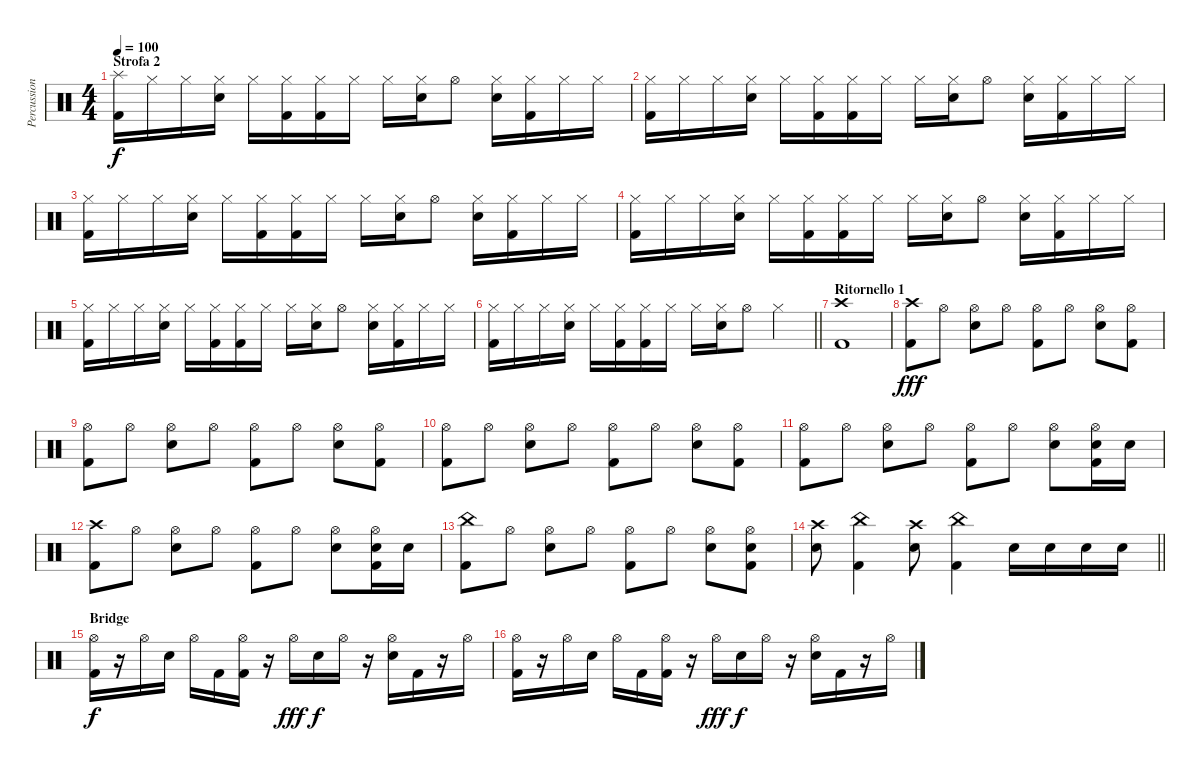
\track ("Percussioni" "Percussion") {instrument percussion}
\staff {score}
\articulation defaults
\ts (4 4)
\section ("" "Strofa 2")
\tempo 100
\clef neutral
\ks c
("Splash (hit)" "Kick (hit) 2").16{dy f} "Hi-Hat (closed)".16 "Hi-Hat (closed)".16 ("Hi-Hat (closed)" "Snare (hit) 2").16 "Hi-Hat (closed)".16 ("Hi-Hat (closed)" "Kick (hit) 2").16 ("Hi-Hat (closed)" "Kick (hit) 2").16 "Hi-Hat (closed)".16 "Hi-Hat (closed)".16 ("Hi-Hat (closed)" "Snare (hit) 2").16 "Hi-Hat (open)".8 ("Hi-Hat (closed)" "Snare (hit) 2").16 ("Hi-Hat (closed)" "Kick (hit) 2").16 "Hi-Hat (closed)".16 "Hi-Hat (closed)".16 |
("Hi-Hat (closed)" "Kick (hit) 2").16 "Hi-Hat (closed)".16 "Hi-Hat (closed)".16 ("Hi-Hat (closed)" "Snare (hit) 2").16 "Hi-Hat (closed)".16 ("Hi-Hat (closed)" "Kick (hit) 2").16 ("Hi-Hat (closed)" "Kick (hit) 2").16 "Hi-Hat (closed)".16 "Hi-Hat (closed)".16 ("Hi-Hat (closed)" "Snare (hit) 2").16 "Hi-Hat (open)".8 ("Hi-Hat (closed)" "Snare (hit) 2").16 ("Hi-Hat (closed)" "Kick (hit) 2").16 "Hi-Hat (closed)".16 "Hi-Hat (closed)".16 |
("Hi-Hat (closed)" "Kick (hit) 2").16 "Hi-Hat (closed)".16 "Hi-Hat (closed)".16 ("Hi-Hat (closed)" "Snare (hit) 2").16 "Hi-Hat (closed)".16 ("Hi-Hat (closed)" "Kick (hit) 2").16 ("Hi-Hat (closed)" "Kick (hit) 2").16 "Hi-Hat (closed)".16 "Hi-Hat (closed)".16 ("Hi-Hat (closed)" "Snare (hit) 2").16 "Hi-Hat (open)".8 ("Hi-Hat (closed)" "Snare (hit) 2").16 ("Hi-Hat (closed)" "Kick (hit) 2").16 "Hi-Hat (closed)".16 "Hi-Hat (closed)".16 |
("Hi-Hat (closed)" "Kick (hit) 2").16 "Hi-Hat (closed)".16 "Hi-Hat (closed)".16 ("Hi-Hat (closed)" "Snare (hit) 2").16 "Hi-Hat (closed)".16 ("Hi-Hat (closed)" "Kick (hit) 2").16 ("Hi-Hat (closed)" "Kick (hit) 2").16 "Hi-Hat (closed)".16 "Hi-Hat (closed)".16 ("Hi-Hat (closed)" "Snare (hit) 2").16 "Hi-Hat (open)".8 ("Hi-Hat (closed)" "Snare (hit) 2").16 ("Hi-Hat (closed)" "Kick (hit) 2").16 "Hi-Hat (closed)".16 "Hi-Hat (closed)".16 |
("Hi-Hat (closed)" "Kick (hit) 2").16 "Hi-Hat (closed)".16 "Hi-Hat (closed)".16 ("Hi-Hat (closed)" "Snare (hit) 2").16 "Hi-Hat (closed)".16 ("Hi-Hat (closed)" "Kick (hit) 2").16 ("Hi-Hat (closed)" "Kick (hit) 2").16 "Hi-Hat (closed)".16 "Hi-Hat (closed)".16 ("Hi-Hat (closed)" "Snare (hit) 2").16 "Hi-Hat (open)".8 ("Hi-Hat (closed)" "Snare (hit) 2").16 ("Hi-Hat (closed)" "Kick (hit) 2").16 "Hi-Hat (closed)".16 "Hi-Hat (closed)".16 |
\barLineRight lightlight
("Hi-Hat (closed)" "Kick (hit) 2").16 "Hi-Hat (closed)".16 "Hi-Hat (closed)".16 ("Hi-Hat (closed)" "Snare (hit) 2").16 "Hi-Hat (closed)".16 ("Hi-Hat (closed)" "Kick (hit) 2").16 ("Hi-Hat (closed)" "Kick (hit) 2").16 "Hi-Hat (closed)".16 "Hi-Hat (closed)".16 ("Hi-Hat (closed)" "Snare (hit) 2").16 "Hi-Hat (open)".8 "Hi-Hat (closed)".4 |
\section ("" "Ritornello 1")
("Crash high (hit)" "Kick (hit) 2").1 |
("Crash high (hit)" "Kick (hit) 2").8{dy fff} "Hi-Hat (open)".8 ("Hi-Hat (open)" "Snare (hit) 2").8 "Hi-Hat (open)".8 ("Hi-Hat (open)" "Kick (hit) 2").8 "Hi-Hat (open)".8 ("Hi-Hat (open)" "Snare (hit) 2").8 ("Hi-Hat (open)" "Kick (hit) 2").8 |
("Hi-Hat (open)" "Kick (hit) 2").8 "Hi-Hat (open)".8 ("Hi-Hat (open)" "Snare (hit) 2").8 "Hi-Hat (open)".8 ("Hi-Hat (open)" "Kick (hit) 2").8 "Hi-Hat (open)".8 ("Hi-Hat (open)" "Snare (hit) 2").8 ("Hi-Hat (open)" "Kick (hit) 2").8 |
("Hi-Hat (open)" "Kick (hit) 2").8 "Hi-Hat (open)".8 ("Hi-Hat (open)" "Snare (hit) 2").8 "Hi-Hat (open)".8 ("Hi-Hat (open)" "Kick (hit) 2").8 "Hi-Hat (open)".8 ("Hi-Hat (open)" "Snare (hit) 2").8 ("Hi-Hat (open)" "Kick (hit) 2").8 |
("Hi-Hat (open)" "Kick (hit) 2").8 "Hi-Hat (open)".8 ("Hi-Hat (open)" "Snare (hit) 2").8 "Hi-Hat (open)".8 ("Hi-Hat (open)" "Kick (hit) 2").8 "Hi-Hat (open)".8 ("Hi-Hat (open)" "Snare (hit) 2").8 ("Hi-Hat (open)" "Snare (hit) 2" "Kick (hit) 2").16 "Snare (hit) 2".16 |
("Crash high (hit)" "Kick (hit) 2").8 "Hi-Hat (open)".8 ("Hi-Hat (open)" "Snare (hit) 2").8 "Hi-Hat (open)".8 ("Hi-Hat (open)" "Kick (hit) 2").8 "Hi-Hat (open)".8 ("Hi-Hat (open)" "Snare (hit) 2").8 ("Hi-Hat (open)" "Snare (hit) 2" "Kick (hit) 2").16 "Snare (hit) 2".16 |
("China (hit)" "Kick (hit) 2").8 "Hi-Hat (open)".8 ("Hi-Hat (open)" "Snare (hit) 2").8 "Hi-Hat (open)".8 ("Hi-Hat (open)" "Kick (hit) 2").8 "Hi-Hat (open)".8 ("Hi-Hat (open)" "Snare (hit) 2").8 ("Hi-Hat (open)" "Snare (hit) 2" "Kick (hit) 2").8 |
\barLineRight lightlight
("Crash high (hit)" "Snare (hit) 2").8 ("China (hit)" "Kick (hit) 2").4 ("Crash high (hit)" "Snare (hit) 2").8 ("China (hit)" "Kick (hit) 2").4 "Snare (hit) 2".16 "Snare (hit) 2".16 "Snare (hit) 2".16 "Snare (hit) 2".16 |
\section ("" "Bridge")
("Hi-Hat (open)" "Kick (hit) 2").16{dy f} r.16 "Hi-Hat (open)".16 "Snare (hit) 2".16 "Hi-Hat (open)".16 "Kick (hit) 2".16 ("Hi-Hat (open)" "Kick (hit) 2").16 r.16 "Hi-Hat (open)".16{dy fff} "Snare (hit) 2".16{dy f} "Hi-Hat (open)".16 r.16 ("Hi-Hat (open)" "Snare (hit) 2").16 "Kick (hit) 2".16 r.16 "Hi-Hat (open)".16 |
("Hi-Hat (open)" "Kick (hit) 2").16 r.16 "Hi-Hat (open)".16 "Snare (hit) 2".16 "Hi-Hat (open)".16 "Kick (hit) 2".16 ("Hi-Hat (open)" "Kick (hit) 2").16 r.16 "Hi-Hat (open)".16{dy fff} "Snare (hit) 2".16{dy f} "Hi-Hat (open)".16 r.16 ("Hi-Hat (open)" "Snare (hit) 2").16 "Kick (hit) 2".16 r.16 "Hi-Hat (open)".16
